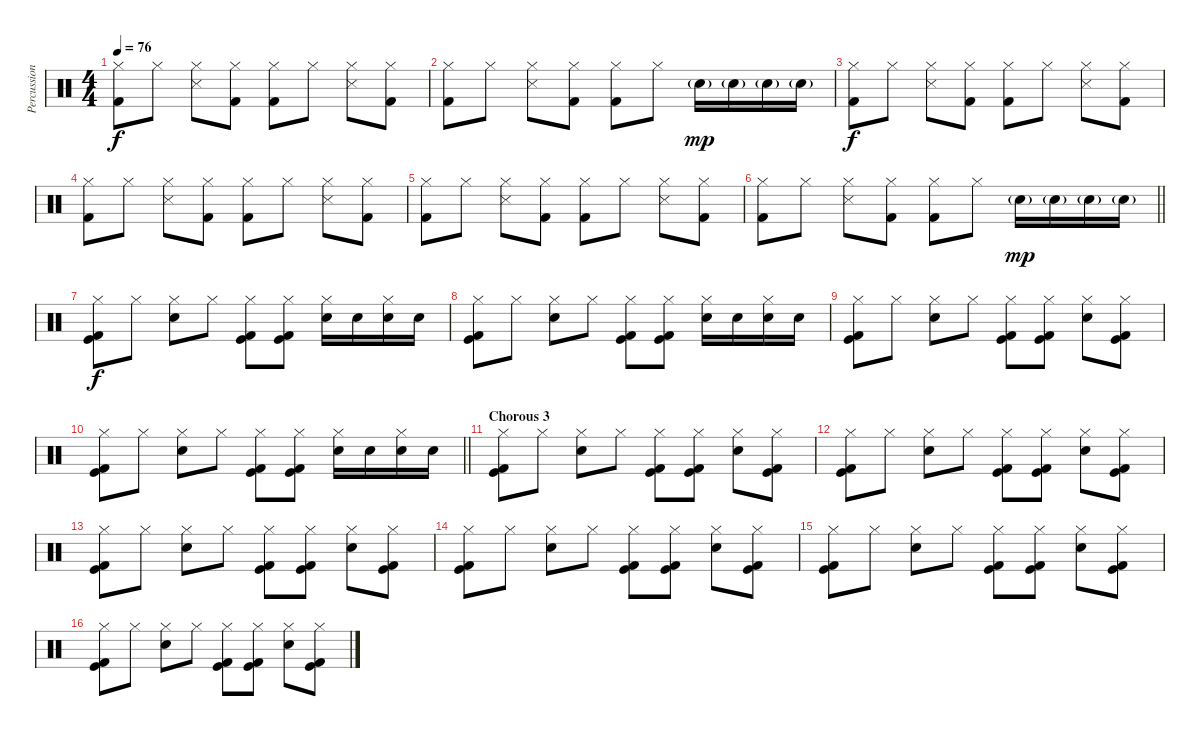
\track ("Percussion" "Percussion") {instrument percussion}
\staff {score}
\articulation defaults
\ts (4 4)
\tempo 76
\clef neutral
\ks c
("Hi-Hat (closed)" "Kick (hit) 2").8{dy f} "Hi-Hat (closed)".8 ("Hi-Hat (closed)" "Snare (side stick) 3").8 ("Hi-Hat (closed)" "Kick (hit) 2").8 ("Hi-Hat (closed)" "Kick (hit) 2").8 "Hi-Hat (closed)".8 ("Hi-Hat (closed)" "Snare (side stick) 3").8 ("Hi-Hat (closed)" "Kick (hit) 2").8 |
("Hi-Hat (closed)" "Kick (hit) 2").8 "Hi-Hat (closed)".8 ("Hi-Hat (closed)" "Snare (side stick) 3").8 ("Hi-Hat (closed)" "Kick (hit) 2").8 ("Hi-Hat (closed)" "Kick (hit) 2").8 "Hi-Hat (closed)".8 "Electric Snare (hit)"{g}.16{dy mp} "Electric Snare (hit)"{g}.16 "Electric Snare (hit)"{g}.16 "Electric Snare (hit)"{g}.16 |
("Hi-Hat (closed)" "Kick (hit) 2").8{dy f} "Hi-Hat (closed)".8 ("Hi-Hat (closed)" "Snare (side stick) 3").8 ("Hi-Hat (closed)" "Kick (hit) 2").8 ("Hi-Hat (closed)" "Kick (hit) 2").8 "Hi-Hat (closed)".8 ("Hi-Hat (closed)" "Snare (side stick) 3").8 ("Hi-Hat (closed)" "Kick (hit) 2").8 |
("Hi-Hat (closed)" "Kick (hit) 2").8 "Hi-Hat (closed)".8 ("Hi-Hat (closed)" "Snare (side stick) 3").8 ("Hi-Hat (closed)" "Kick (hit) 2").8 ("Hi-Hat (closed)" "Kick (hit) 2").8 "Hi-Hat (closed)".8 ("Hi-Hat (closed)" "Snare (side stick) 3").8 ("Hi-Hat (closed)" "Kick (hit) 2").8 |
("Hi-Hat (closed)" "Kick (hit) 2").8 "Hi-Hat (closed)".8 ("Hi-Hat (closed)" "Snare (side stick) 3").8 ("Hi-Hat (closed)" "Kick (hit) 2").8 ("Hi-Hat (closed)" "Kick (hit) 2").8 "Hi-Hat (closed)".8 ("Hi-Hat (closed)" "Snare (side stick) 3").8 ("Hi-Hat (closed)" "Kick (hit) 2").8 |
\barLineRight lightlight
("Hi-Hat (closed)" "Kick (hit) 2").8 "Hi-Hat (closed)".8 ("Hi-Hat (closed)" "Snare (side stick) 3").8 ("Hi-Hat (closed)" "Kick (hit) 2").8 ("Hi-Hat (closed)" "Kick (hit) 2").8 "Hi-Hat (closed)".8 "Electric Snare (hit)"{g}.16{dy mp} "Electric Snare (hit)"{g}.16 "Electric Snare (hit)"{g}.16 "Electric Snare (hit)"{g}.16 |
\section ("" "")
("Hi-Hat (closed)" "Kick (hit)" "Kick (hit) 2").8{dy f} "Hi-Hat (closed)".8 ("Hi-Hat (closed)" "Electric Snare (hit)").8 "Hi-Hat (closed)".8 ("Hi-Hat (closed)" "Kick (hit)" "Kick (hit) 2").8 ("Hi-Hat (closed)" "Kick (hit)" "Kick (hit) 2").8 ("Hi-Hat (closed)" "Electric Snare (hit)").16 "Electric Snare (hit)".16 ("Hi-Hat (closed)" "Electric Snare (hit)").16 "Electric Snare (hit)".16 |
("Hi-Hat (closed)" "Kick (hit)" "Kick (hit) 2").8 "Hi-Hat (closed)".8 ("Hi-Hat (closed)" "Electric Snare (hit)").8 "Hi-Hat (closed)".8 ("Hi-Hat (closed)" "Kick (hit)" "Kick (hit) 2").8 ("Hi-Hat (closed)" "Kick (hit)" "Kick (hit) 2").8 ("Hi-Hat (closed)" "Electric Snare (hit)").16 "Electric Snare (hit)".16 ("Hi-Hat (closed)" "Electric Snare (hit)").16 "Electric Snare (hit)".16 |
("Hi-Hat (closed)" "Kick (hit)" "Kick (hit) 2").8 "Hi-Hat (closed)".8 ("Hi-Hat (closed)" "Electric Snare (hit)").8 "Hi-Hat (closed)".8 ("Hi-Hat (closed)" "Kick (hit)" "Kick (hit) 2").8 ("Hi-Hat (closed)" "Kick (hit)" "Kick (hit) 2").8 ("Hi-Hat (closed)" "Electric Snare (hit)").8 ("Hi-Hat (closed)" "Kick (hit)" "Kick (hit) 2").8 |
\barLineRight lightlight
("Hi-Hat (closed)" "Kick (hit)" "Kick (hit) 2").8 "Hi-Hat (closed)".8 ("Hi-Hat (closed)" "Electric Snare (hit)").8 "Hi-Hat (closed)".8 ("Hi-Hat (closed)" "Kick (hit)" "Kick (hit) 2").8 ("Hi-Hat (closed)" "Kick (hit)" "Kick (hit) 2").8 ("Hi-Hat (closed)" "Electric Snare (hit)").16 "Electric Snare (hit)".16 ("Hi-Hat (closed)" "Electric Snare (hit)").16 "Electric Snare (hit)".16 |
\section ("" "Chorous 3")
("Hi-Hat (closed)" "Kick (hit)" "Kick (hit) 2").8 "Hi-Hat (closed)".8 ("Hi-Hat (closed)" "Electric Snare (hit)").8 "Hi-Hat (closed)".8 ("Hi-Hat (closed)" "Kick (hit)" "Kick (hit) 2").8 ("Hi-Hat (closed)" "Kick (hit)" "Kick (hit) 2").8 ("Hi-Hat (closed)" "Electric Snare (hit)").8 ("Hi-Hat (closed)" "Kick (hit)" "Kick (hit) 2").8 |
("Hi-Hat (closed)" "Kick (hit)" "Kick (hit) 2").8 "Hi-Hat (closed)".8 ("Hi-Hat (closed)" "Electric Snare (hit)").8 "Hi-Hat (closed)".8 ("Hi-Hat (closed)" "Kick (hit)" "Kick (hit) 2").8 ("Hi-Hat (closed)" "Kick (hit)" "Kick (hit) 2").8 ("Hi-Hat (closed)" "Electric Snare (hit)").8 ("Hi-Hat (closed)" "Kick (hit)" "Kick (hit) 2").8 |
("Hi-Hat (closed)" "Kick (hit)" "Kick (hit) 2").8 "Hi-Hat (closed)".8 ("Hi-Hat (closed)" "Electric Snare (hit)").8 "Hi-Hat (closed)".8 ("Hi-Hat (closed)" "Kick (hit)" "Kick (hit) 2").8 ("Hi-Hat (closed)" "Kick (hit)" "Kick (hit) 2").8 ("Hi-Hat (closed)" "Electric Snare (hit)").8 ("Hi-Hat (closed)" "Kick (hit)" "Kick (hit) 2").8 |
("Hi-Hat (closed)" "Kick (hit)" "Kick (hit) 2").8 "Hi-Hat (closed)".8 ("Hi-Hat (closed)" "Electric Snare (hit)").8 "Hi-Hat (closed)".8 ("Hi-Hat (closed)" "Kick (hit)" "Kick (hit) 2").8 ("Hi-Hat (closed)" "Kick (hit)" "Kick (hit) 2").8 ("Hi-Hat (closed)" "Electric Snare (hit)").8 ("Hi-Hat (closed)" "Kick (hit)" "Kick (hit) 2").8 |
("Hi-Hat (closed)" "Kick (hit)" "Kick (hit) 2").8 "Hi-Hat (closed)".8 ("Hi-Hat (closed)" "Electric Snare (hit)").8 "Hi-Hat (closed)".8 ("Hi-Hat (closed)" "Kick (hit)" "Kick (hit) 2").8 ("Hi-Hat (closed)" "Kick (hit)" "Kick (hit) 2").8 ("Hi-Hat (closed)" "Electric Snare (hit)").8 ("Hi-Hat (closed)" "Kick (hit)" "Kick (hit) 2").8 |
("Hi-Hat (closed)" "Kick (hit)" "Kick (hit) 2").8 "Hi-Hat (closed)".8 ("Hi-Hat (closed)" "Electric Snare (hit)").8 "Hi-Hat (closed)".8 ("Hi-Hat (closed)" "Kick (hit)" "Kick (hit) 2").8 ("Hi-Hat (closed)" "Kick (hit)" "Kick (hit) 2").8 ("Hi-Hat (closed)" "Electric Snare (hit)").8 ("Hi-Hat (closed)" "Kick (hit)" "Kick (hit) 2").8
